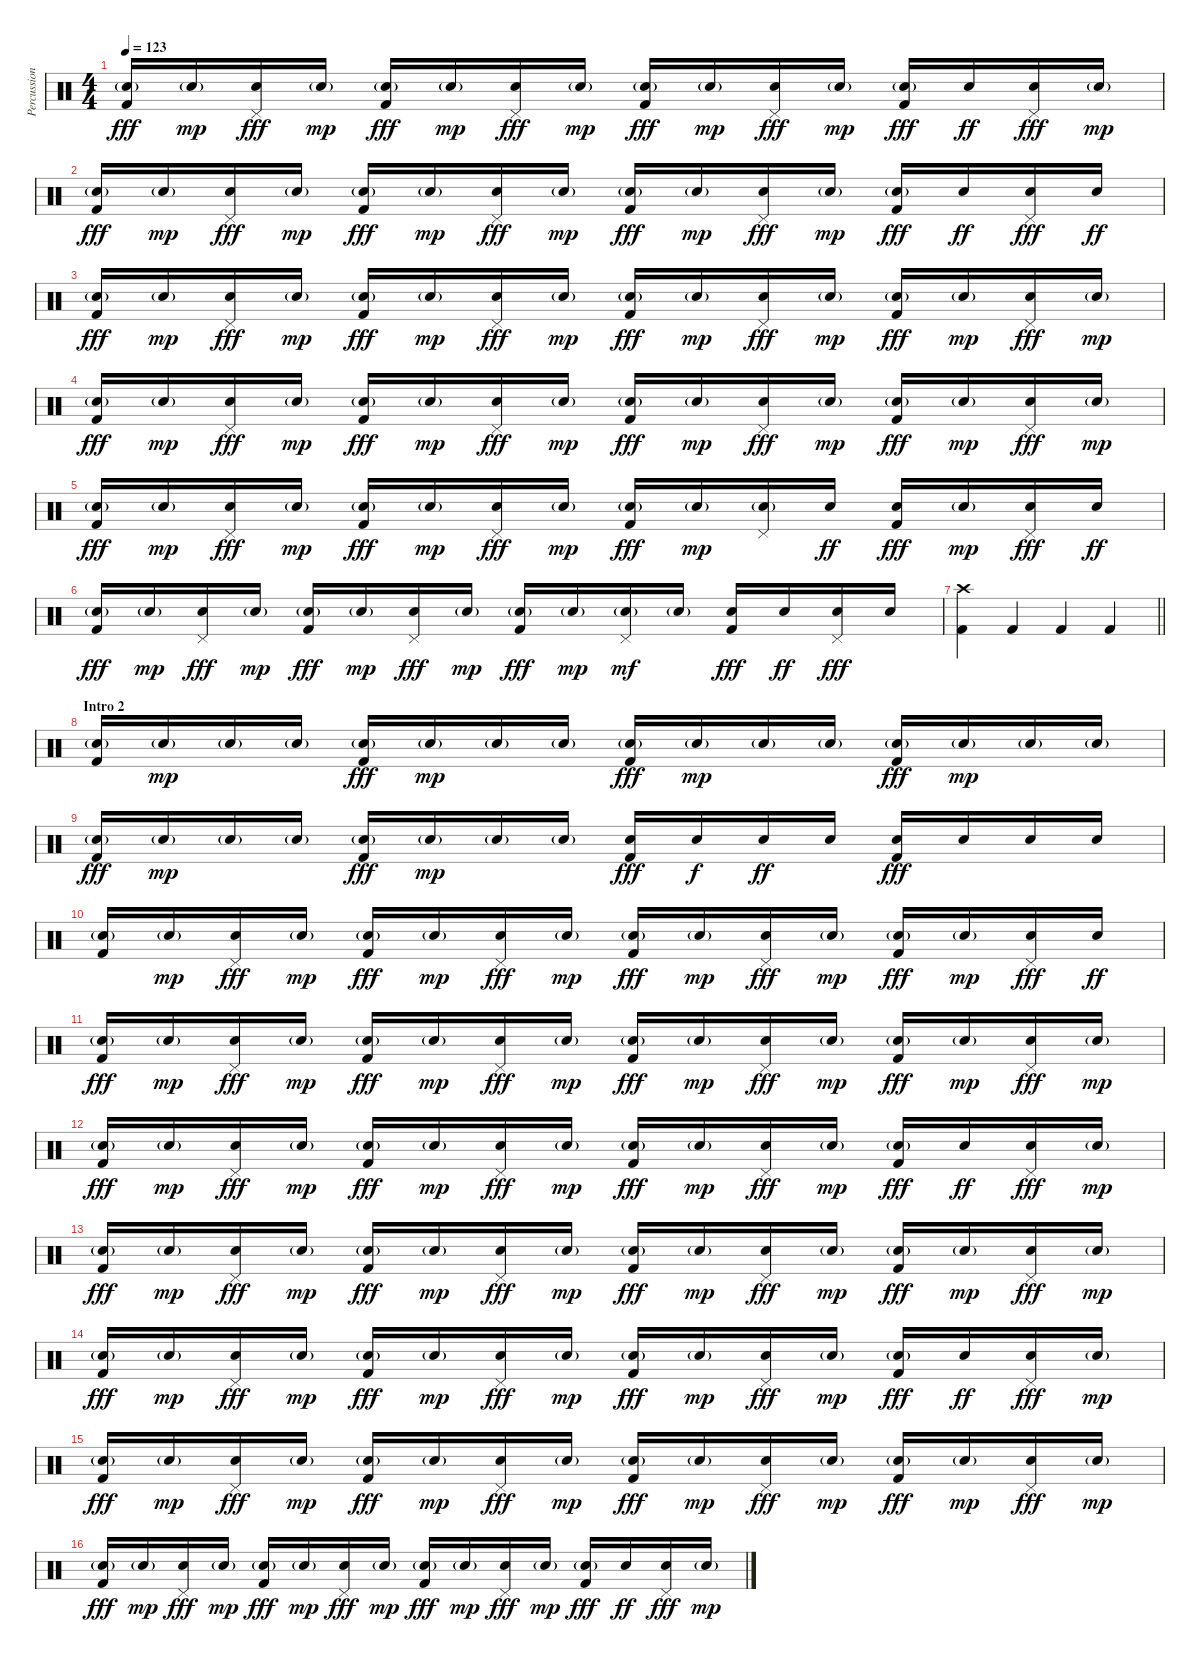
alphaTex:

\track ("Percussion" "Percussion") {instrument percussion}
\staff {score}
\articulation defaults
\ts (4 4)
\tempo 123
\clef neutral
\ks c
("Electric Snare (hit)"{g} "Kick (hit) 2").16{dy fff} "Electric Snare (hit)"{g}.16{dy mp} ("Pedal Hi-Hat (hit)" "Electric Snare (hit)").16{dy fff} "Electric Snare (hit)"{g}.16{dy mp} ("Electric Snare (hit)"{g} "Kick (hit) 2").16{dy fff} "Electric Snare (hit)"{g}.16{dy mp} ("Pedal Hi-Hat (hit)" "Electric Snare (hit)").16{dy fff} "Electric Snare (hit)"{g}.16{dy mp} ("Electric Snare (hit)"{g} "Kick (hit) 2").16{dy fff} "Electric Snare (hit)"{g}.16{dy mp} ("Pedal Hi-Hat (hit)" "Electric Snare (hit)").16{dy fff} "Electric Snare (hit)"{g}.16{dy mp} ("Electric Snare (hit)"{g} "Kick (hit) 2").16{dy fff} "Electric Snare (hit)".16{dy ff} ("Pedal Hi-Hat (hit)" "Electric Snare (hit)").16{dy fff} "Electric Snare (hit)"{g}.16{dy mp} |
("Electric Snare (hit)"{g} "Kick (hit) 2").16{dy fff} "Electric Snare (hit)"{g}.16{dy mp} ("Pedal Hi-Hat (hit)" "Electric Snare (hit)").16{dy fff} "Electric Snare (hit)"{g}.16{dy mp} ("Electric Snare (hit)"{g} "Kick (hit) 2").16{dy fff} "Electric Snare (hit)"{g}.16{dy mp} ("Pedal Hi-Hat (hit)" "Electric Snare (hit)").16{dy fff} "Electric Snare (hit)"{g}.16{dy mp} ("Electric Snare (hit)"{g} "Kick (hit) 2").16{dy fff} "Electric Snare (hit)"{g}.16{dy mp} ("Pedal Hi-Hat (hit)" "Electric Snare (hit)").16{dy fff} "Electric Snare (hit)"{g}.16{dy mp} ("Electric Snare (hit)"{g} "Kick (hit) 2").16{dy fff} "Electric Snare (hit)".16{dy ff} ("Pedal Hi-Hat (hit)" "Electric Snare (hit)").16{dy fff} "Electric Snare (hit)".16{dy ff} |
("Electric Snare (hit)"{g} "Kick (hit) 2").16{dy fff} "Electric Snare (hit)"{g}.16{dy mp} ("Pedal Hi-Hat (hit)" "Electric Snare (hit)").16{dy fff} "Electric Snare (hit)"{g}.16{dy mp} ("Electric Snare (hit)"{g} "Kick (hit) 2").16{dy fff} "Electric Snare (hit)"{g}.16{dy mp} ("Pedal Hi-Hat (hit)" "Electric Snare (hit)").16{dy fff} "Electric Snare (hit)"{g}.16{dy mp} ("Electric Snare (hit)"{g} "Kick (hit) 2").16{dy fff} "Electric Snare (hit)"{g}.16{dy mp} ("Pedal Hi-Hat (hit)" "Electric Snare (hit)").16{dy fff} "Electric Snare (hit)"{g}.16{dy mp} ("Electric Snare (hit)"{g} "Kick (hit) 2").16{dy fff} "Electric Snare (hit)"{g}.16{dy mp} ("Pedal Hi-Hat (hit)" "Electric Snare (hit)").16{dy fff} "Electric Snare (hit)"{g}.16{dy mp} |
("Electric Snare (hit)"{g} "Kick (hit) 2").16{dy fff} "Electric Snare (hit)"{g}.16{dy mp} ("Pedal Hi-Hat (hit)" "Electric Snare (hit)").16{dy fff} "Electric Snare (hit)"{g}.16{dy mp} ("Electric Snare (hit)"{g} "Kick (hit) 2").16{dy fff} "Electric Snare (hit)"{g}.16{dy mp} ("Pedal Hi-Hat (hit)" "Electric Snare (hit)").16{dy fff} "Electric Snare (hit)"{g}.16{dy mp} ("Electric Snare (hit)"{g} "Kick (hit) 2").16{dy fff} "Electric Snare (hit)"{g}.16{dy mp} ("Pedal Hi-Hat (hit)" "Electric Snare (hit)").16{dy fff} "Electric Snare (hit)"{g}.16{dy mp} ("Electric Snare (hit)"{g} "Kick (hit) 2").16{dy fff} "Electric Snare (hit)"{g}.16{dy mp} ("Pedal Hi-Hat (hit)" "Electric Snare (hit)").16{dy fff} "Electric Snare (hit)"{g}.16{dy mp} |
("Electric Snare (hit)"{g} "Kick (hit) 2").16{dy fff} "Electric Snare (hit)"{g}.16{dy mp} ("Pedal Hi-Hat (hit)" "Electric Snare (hit)").16{dy fff} "Electric Snare (hit)"{g}.16{dy mp} ("Electric Snare (hit)"{g} "Kick (hit) 2").16{dy fff} "Electric Snare (hit)"{g}.16{dy mp} ("Pedal Hi-Hat (hit)" "Electric Snare (hit)").16{dy fff} "Electric Snare (hit)"{g}.16{dy mp} ("Electric Snare (hit)"{g} "Kick (hit) 2").16{dy fff} "Electric Snare (hit)"{g}.16{dy mp} ("Pedal Hi-Hat (hit)" "Electric Snare (hit)"{g}).16 "Electric Snare (hit)".16{dy ff} ("Electric Snare (hit)" "Kick (hit) 2").16{dy fff} "Electric Snare (hit)"{g}.16{dy mp} ("Pedal Hi-Hat (hit)" "Electric Snare (hit)").16{dy fff} "Electric Snare (hit)".16{dy ff} |
("Electric Snare (hit)"{g} "Kick (hit) 2").16{dy fff} "Electric Snare (hit)"{g}.16{dy mp} ("Pedal Hi-Hat (hit)" "Electric Snare (hit)").16{dy fff} "Electric Snare (hit)"{g}.16{dy mp} ("Electric Snare (hit)"{g} "Kick (hit) 2").16{dy fff} "Electric Snare (hit)"{g}.16{dy mp} ("Pedal Hi-Hat (hit)" "Electric Snare (hit)").16{dy fff} "Electric Snare (hit)"{g}.16{dy mp} ("Electric Snare (hit)"{g} "Kick (hit) 2").16{dy fff} "Electric Snare (hit)"{g}.16{dy mp} ("Pedal Hi-Hat (hit)" "Electric Snare (hit)"{g}).16{dy mf} "Electric Snare (hit)"{g}.16 ("Electric Snare (hit)" "Kick (hit) 2").16{dy fff} "Electric Snare (hit)".16{dy ff} ("Pedal Hi-Hat (hit)" "Electric Snare (hit)").16{dy fff} "Electric Snare (hit)".16 |
\barLineRight lightlight
("Crash high (hit)" "Kick (hit) 2").4 "Kick (hit) 2".4 "Kick (hit) 2".4 "Kick (hit) 2".4 |
\section ("" "Intro 2")
("Electric Snare (hit)"{g} "Kick (hit) 2").16 "Electric Snare (hit)"{g}.16{dy mp} "Electric Snare (hit)"{g}.16 "Electric Snare (hit)"{g}.16 ("Electric Snare (hit)"{g} "Kick (hit) 2").16{dy fff} "Electric Snare (hit)"{g}.16{dy mp} "Electric Snare (hit)"{g}.16 "Electric Snare (hit)"{g}.16 ("Electric Snare (hit)"{g} "Kick (hit) 2").16{dy fff} "Electric Snare (hit)"{g}.16{dy mp} "Electric Snare (hit)"{g}.16 "Electric Snare (hit)"{g}.16 ("Electric Snare (hit)"{g} "Kick (hit) 2").16{dy fff} "Electric Snare (hit)"{g}.16{dy mp} "Electric Snare (hit)"{g}.16 "Electric Snare (hit)"{g}.16 |
("Electric Snare (hit)"{g} "Kick (hit) 2").16{dy fff} "Electric Snare (hit)"{g}.16{dy mp} "Electric Snare (hit)"{g}.16 "Electric Snare (hit)"{g}.16 ("Electric Snare (hit)"{g} "Kick (hit) 2").16{dy fff} "Electric Snare (hit)"{g}.16{dy mp} "Electric Snare (hit)"{g}.16 "Electric Snare (hit)"{g}.16 ("Electric Snare (hit)" "Kick (hit) 2").16{dy fff} "Electric Snare (hit)".16{dy f} "Electric Snare (hit)".16{dy ff} "Electric Snare (hit)".16 ("Electric Snare (hit)" "Kick (hit) 2").16{dy fff} "Electric Snare (hit)".16 "Electric Snare (hit)".16 "Electric Snare (hit)".16 |
("Electric Snare (hit)"{g} "Kick (hit) 2").16 "Electric Snare (hit)"{g}.16{dy mp} ("Pedal Hi-Hat (hit)" "Electric Snare (hit)").16{dy fff} "Electric Snare (hit)"{g}.16{dy mp} ("Electric Snare (hit)"{g} "Kick (hit) 2").16{dy fff} "Electric Snare (hit)"{g}.16{dy mp} ("Pedal Hi-Hat (hit)" "Electric Snare (hit)").16{dy fff} "Electric Snare (hit)"{g}.16{dy mp} ("Electric Snare (hit)"{g} "Kick (hit) 2").16{dy fff} "Electric Snare (hit)"{g}.16{dy mp} ("Pedal Hi-Hat (hit)" "Electric Snare (hit)").16{dy fff} "Electric Snare (hit)"{g}.16{dy mp} ("Electric Snare (hit)"{g} "Kick (hit) 2").16{dy fff} "Electric Snare (hit)"{g}.16{dy mp} ("Pedal Hi-Hat (hit)" "Electric Snare (hit)").16{dy fff} "Electric Snare (hit)".16{dy ff} |
("Electric Snare (hit)"{g} "Kick (hit) 2").16{dy fff} "Electric Snare (hit)"{g}.16{dy mp} ("Pedal Hi-Hat (hit)" "Electric Snare (hit)").16{dy fff} "Electric Snare (hit)"{g}.16{dy mp} ("Electric Snare (hit)"{g} "Kick (hit) 2").16{dy fff} "Electric Snare (hit)"{g}.16{dy mp} ("Pedal Hi-Hat (hit)" "Electric Snare (hit)").16{dy fff} "Electric Snare (hit)"{g}.16{dy mp} ("Electric Snare (hit)"{g} "Kick (hit) 2").16{dy fff} "Electric Snare (hit)"{g}.16{dy mp} ("Pedal Hi-Hat (hit)" "Electric Snare (hit)").16{dy fff} "Electric Snare (hit)"{g}.16{dy mp} ("Electric Snare (hit)"{g} "Kick (hit) 2").16{dy fff} "Electric Snare (hit)"{g}.16{dy mp} ("Pedal Hi-Hat (hit)" "Electric Snare (hit)").16{dy fff} "Electric Snare (hit)"{g}.16{dy mp} |
("Electric Snare (hit)"{g} "Kick (hit) 2").16{dy fff} "Electric Snare (hit)"{g}.16{dy mp} ("Pedal Hi-Hat (hit)" "Electric Snare (hit)").16{dy fff} "Electric Snare (hit)"{g}.16{dy mp} ("Electric Snare (hit)"{g} "Kick (hit) 2").16{dy fff} "Electric Snare (hit)"{g}.16{dy mp} ("Pedal Hi-Hat (hit)" "Electric Snare (hit)").16{dy fff} "Electric Snare (hit)"{g}.16{dy mp} ("Electric Snare (hit)"{g} "Kick (hit) 2").16{dy fff} "Electric Snare (hit)"{g}.16{dy mp} ("Pedal Hi-Hat (hit)" "Electric Snare (hit)").16{dy fff} "Electric Snare (hit)"{g}.16{dy mp} ("Electric Snare (hit)"{g} "Kick (hit) 2").16{dy fff} "Electric Snare (hit)".16{dy ff} ("Pedal Hi-Hat (hit)" "Electric Snare (hit)").16{dy fff} "Electric Snare (hit)"{g}.16{dy mp} |
("Electric Snare (hit)"{g} "Kick (hit) 2").16{dy fff} "Electric Snare (hit)"{g}.16{dy mp} ("Pedal Hi-Hat (hit)" "Electric Snare (hit)").16{dy fff} "Electric Snare (hit)"{g}.16{dy mp} ("Electric Snare (hit)"{g} "Kick (hit) 2").16{dy fff} "Electric Snare (hit)"{g}.16{dy mp} ("Pedal Hi-Hat (hit)" "Electric Snare (hit)").16{dy fff} "Electric Snare (hit)"{g}.16{dy mp} ("Electric Snare (hit)"{g} "Kick (hit) 2").16{dy fff} "Electric Snare (hit)"{g}.16{dy mp} ("Pedal Hi-Hat (hit)" "Electric Snare (hit)").16{dy fff} "Electric Snare (hit)"{g}.16{dy mp} ("Electric Snare (hit)"{g} "Kick (hit) 2").16{dy fff} "Electric Snare (hit)"{g}.16{dy mp} ("Pedal Hi-Hat (hit)" "Electric Snare (hit)").16{dy fff} "Electric Snare (hit)"{g}.16{dy mp} |
("Electric Snare (hit)"{g} "Kick (hit) 2").16{dy fff} "Electric Snare (hit)"{g}.16{dy mp} ("Pedal Hi-Hat (hit)" "Electric Snare (hit)").16{dy fff} "Electric Snare (hit)"{g}.16{dy mp} ("Electric Snare (hit)"{g} "Kick (hit) 2").16{dy fff} "Electric Snare (hit)"{g}.16{dy mp} ("Pedal Hi-Hat (hit)" "Electric Snare (hit)").16{dy fff} "Electric Snare (hit)"{g}.16{dy mp} ("Electric Snare (hit)"{g} "Kick (hit) 2").16{dy fff} "Electric Snare (hit)"{g}.16{dy mp} ("Pedal Hi-Hat (hit)" "Electric Snare (hit)").16{dy fff} "Electric Snare (hit)"{g}.16{dy mp} ("Electric Snare (hit)"{g} "Kick (hit) 2").16{dy fff} "Electric Snare (hit)".16{dy ff} ("Pedal Hi-Hat (hit)" "Electric Snare (hit)").16{dy fff} "Electric Snare (hit)"{g}.16{dy mp} |
("Electric Snare (hit)"{g} "Kick (hit) 2").16{dy fff} "Electric Snare (hit)"{g}.16{dy mp} ("Pedal Hi-Hat (hit)" "Electric Snare (hit)").16{dy fff} "Electric Snare (hit)"{g}.16{dy mp} ("Electric Snare (hit)"{g} "Kick (hit) 2").16{dy fff} "Electric Snare (hit)"{g}.16{dy mp} ("Pedal Hi-Hat (hit)" "Electric Snare (hit)").16{dy fff} "Electric Snare (hit)"{g}.16{dy mp} ("Electric Snare (hit)"{g} "Kick (hit) 2").16{dy fff} "Electric Snare (hit)"{g}.16{dy mp} ("Pedal Hi-Hat (hit)" "Electric Snare (hit)").16{dy fff} "Electric Snare (hit)"{g}.16{dy mp} ("Electric Snare (hit)"{g} "Kick (hit) 2").16{dy fff} "Electric Snare (hit)"{g}.16{dy mp} ("Pedal Hi-Hat (hit)" "Electric Snare (hit)").16{dy fff} "Electric Snare (hit)"{g}.16{dy mp} |
("Electric Snare (hit)"{g} "Kick (hit) 2").16{dy fff} "Electric Snare (hit)"{g}.16{dy mp} ("Pedal Hi-Hat (hit)" "Electric Snare (hit)").16{dy fff} "Electric Snare (hit)"{g}.16{dy mp} ("Electric Snare (hit)"{g} "Kick (hit) 2").16{dy fff} "Electric Snare (hit)"{g}.16{dy mp} ("Pedal Hi-Hat (hit)" "Electric Snare (hit)").16{dy fff} "Electric Snare (hit)"{g}.16{dy mp} ("Electric Snare (hit)"{g} "Kick (hit) 2").16{dy fff} "Electric Snare (hit)"{g}.16{dy mp} ("Pedal Hi-Hat (hit)" "Electric Snare (hit)").16{dy fff} "Electric Snare (hit)"{g}.16{dy mp} ("Electric Snare (hit)"{g} "Kick (hit) 2").16{dy fff} "Electric Snare (hit)".16{dy ff} ("Pedal Hi-Hat (hit)" "Electric Snare (hit)").16{dy fff} "Electric Snare (hit)"{g}.16{dy mp}
